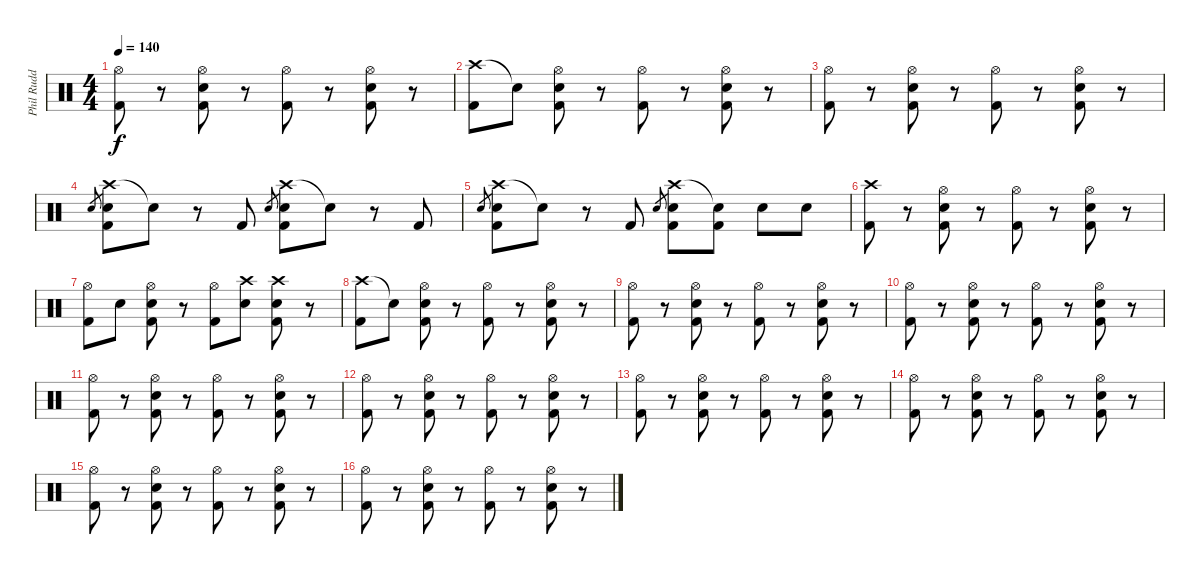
\track ("Phil Rudd" "Phil Rudd") {instrument percussion}
\staff {score}
\articulation defaults
\ts (4 4)
\tempo 140
\clef neutral
\ks c
("Hi-Hat (open)" "Kick (hit) 2").8{dy f} r.8 ("Hi-Hat (open)" "Electric Snare (hit)" "Kick (hit) 2").8 r.8 ("Hi-Hat (open)" "Kick (hit) 2").8 r.8 ("Hi-Hat (open)" "Electric Snare (hit)" "Kick (hit) 2").8 r.8 |
("Crash high (hit)" "Kick (hit) 2").8 "Snare (hit)"{t}.8 ("Hi-Hat (open)" "Electric Snare (hit)" "Kick (hit) 2").8 r.8 ("Hi-Hat (open)" "Kick (hit) 2").8 r.8 ("Hi-Hat (open)" "Electric Snare (hit)" "Kick (hit) 2").8 r.8 |
("Hi-Hat (open)" "Kick (hit) 2").8 r.8 ("Hi-Hat (open)" "Electric Snare (hit)" "Kick (hit) 2").8 r.8 ("Hi-Hat (open)" "Kick (hit) 2").8 r.8 ("Hi-Hat (open)" "Electric Snare (hit)" "Kick (hit) 2").8 r.8 |
"Electric Snare (hit)".8{gr} ("Crash high (hit)" "Electric Snare (hit)" "Kick (hit) 2").8 "Snare (hit)"{t}.8 r.8 "Kick (hit) 2".8 "Electric Snare (hit)".8{gr} ("Crash high (hit)" "Electric Snare (hit)" "Kick (hit) 2").8 "Snare (hit)"{t}.8 r.8 "Kick (hit) 2".8 |
"Electric Snare (hit)".8{gr} ("Crash high (hit)" "Electric Snare (hit)" "Kick (hit) 2").8 "Snare (hit)"{t}.8 r.8 "Kick (hit) 2".8 "Electric Snare (hit)".8{gr} ("Crash high (hit)" "Electric Snare (hit)" "Kick (hit) 2").8 ("Snare (hit)"{t} "Kick (hit) 2").8 "Electric Snare (hit)".8 "Electric Snare (hit)".8 |
("Crash high (hit)" "Kick (hit) 2").8 r.8 ("Hi-Hat (open)" "Electric Snare (hit)" "Kick (hit) 2").8 r.8 ("Hi-Hat (open)" "Kick (hit) 2").8 r.8 ("Hi-Hat (open)" "Electric Snare (hit)" "Kick (hit) 2").8 r.8 |
("Hi-Hat (open)" "Kick (hit) 2").8 "Electric Snare (hit)".8 ("Hi-Hat (open)" "Electric Snare (hit)" "Kick (hit) 2").8 r.8 ("Hi-Hat (open)" "Kick (hit) 2").8 ("Crash high (hit)" "Electric Snare (hit)").8 ("Crash high (hit)" "Electric Snare (hit)" "Kick (hit) 2").8 r.8 |
("Crash high (hit)" "Kick (hit) 2").8 "Snare (hit)"{t}.8 ("Hi-Hat (open)" "Electric Snare (hit)" "Kick (hit) 2").8 r.8 ("Hi-Hat (open)" "Kick (hit) 2").8 r.8 ("Hi-Hat (open)" "Electric Snare (hit)" "Kick (hit) 2").8 r.8 |
("Hi-Hat (open)" "Kick (hit) 2").8 r.8 ("Hi-Hat (open)" "Electric Snare (hit)" "Kick (hit) 2").8 r.8 ("Hi-Hat (open)" "Kick (hit) 2").8 r.8 ("Hi-Hat (open)" "Electric Snare (hit)" "Kick (hit) 2").8 r.8 |
("Hi-Hat (open)" "Kick (hit) 2").8 r.8 ("Hi-Hat (open)" "Electric Snare (hit)" "Kick (hit) 2").8 r.8 ("Hi-Hat (open)" "Kick (hit) 2").8 r.8 ("Hi-Hat (open)" "Electric Snare (hit)" "Kick (hit) 2").8 r.8 |
("Hi-Hat (open)" "Kick (hit) 2").8 r.8 ("Hi-Hat (open)" "Electric Snare (hit)" "Kick (hit) 2").8 r.8 ("Hi-Hat (open)" "Kick (hit) 2").8 r.8 ("Hi-Hat (open)" "Electric Snare (hit)" "Kick (hit) 2").8 r.8 |
("Hi-Hat (open)" "Kick (hit) 2").8 r.8 ("Hi-Hat (open)" "Electric Snare (hit)" "Kick (hit) 2").8 r.8 ("Hi-Hat (open)" "Kick (hit) 2").8 r.8 ("Hi-Hat (open)" "Electric Snare (hit)" "Kick (hit) 2").8 r.8 |
("Hi-Hat (open)" "Kick (hit) 2").8 r.8 ("Hi-Hat (open)" "Electric Snare (hit)" "Kick (hit) 2").8 r.8 ("Hi-Hat (open)" "Kick (hit) 2").8 r.8 ("Hi-Hat (open)" "Electric Snare (hit)" "Kick (hit) 2").8 r.8 |
("Hi-Hat (open)" "Kick (hit) 2").8 r.8 ("Hi-Hat (open)" "Electric Snare (hit)" "Kick (hit) 2").8 r.8 ("Hi-Hat (open)" "Kick (hit) 2").8 r.8 ("Hi-Hat (open)" "Electric Snare (hit)" "Kick (hit) 2").8 r.8 |
("Hi-Hat (open)" "Kick (hit) 2").8 r.8 ("Hi-Hat (open)" "Electric Snare (hit)" "Kick (hit) 2").8 r.8 ("Hi-Hat (open)" "Kick (hit) 2").8 r.8 ("Hi-Hat (open)" "Electric Snare (hit)" "Kick (hit) 2").8 r.8 |
("Hi-Hat (open)" "Kick (hit) 2").8 r.8 ("Hi-Hat (open)" "Electric Snare (hit)" "Kick (hit) 2").8 r.8 ("Hi-Hat (open)" "Kick (hit) 2").8 r.8 ("Hi-Hat (open)" "Electric Snare (hit)" "Kick (hit) 2").8 r.8
